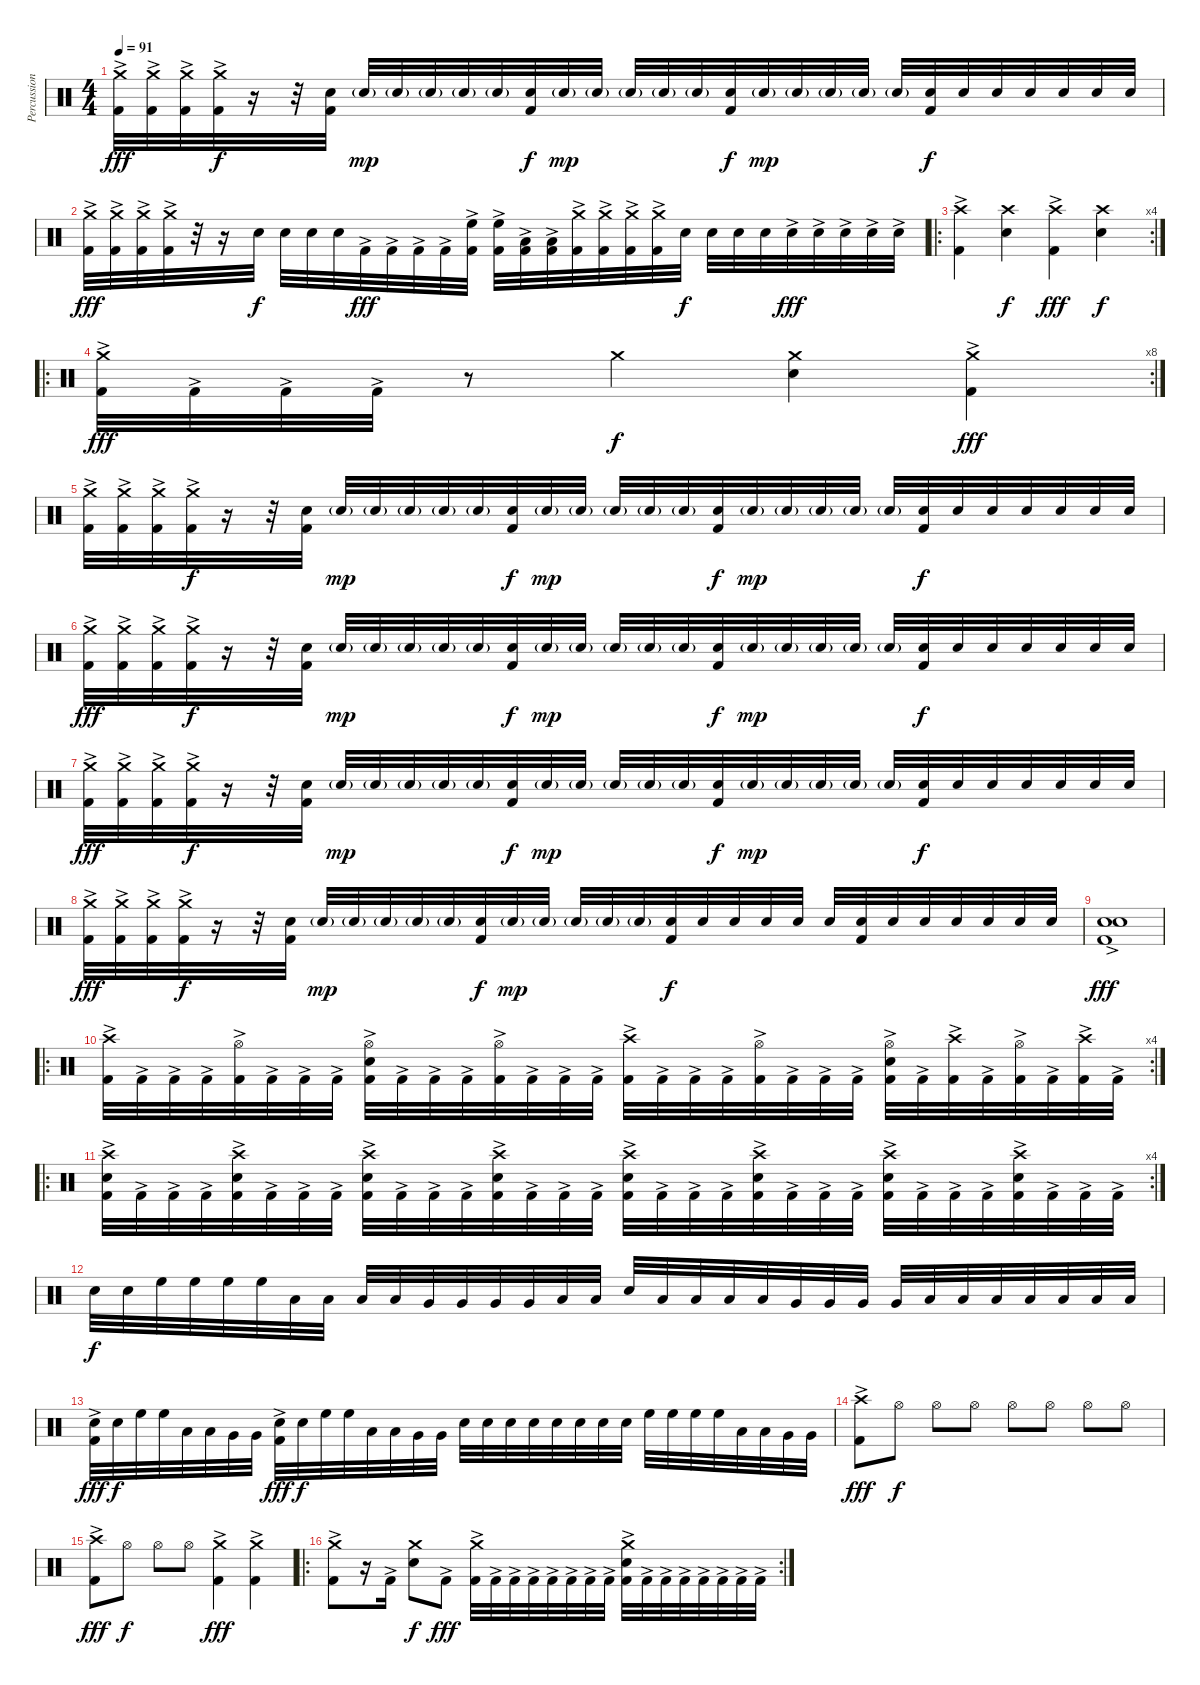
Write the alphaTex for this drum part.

\track ("Percussion" "Percussion") {instrument percussion}
\staff {score}
\articulation defaults
\ts (4 4)
\tempo 91
\clef neutral
\ks c
("Crash medium (hit)" "Kick (hit) 2"{ac}).32{dy fff} ("Crash medium (hit)"{ac} "Kick (hit) 2").32 ("Crash medium (hit)"{ac} "Kick (hit) 2").32 ("Crash medium (hit)"{ac} "Kick (hit) 2").32{dy f} r.16 r.32 ("Electric Snare (hit)" "Kick (hit) 2").32 "Electric Snare (hit)"{g}.32{dy mp} "Electric Snare (hit)"{g}.32 "Electric Snare (hit)"{g}.32 "Electric Snare (hit)"{g}.32 "Electric Snare (hit)"{g}.32 ("Electric Snare (hit)" "Kick (hit) 2").32{dy f} "Electric Snare (hit)"{g}.32{dy mp} "Electric Snare (hit)"{g}.32 "Electric Snare (hit)"{g}.32 "Electric Snare (hit)"{g}.32 "Electric Snare (hit)"{g}.32 ("Electric Snare (hit)" "Kick (hit) 2").32{dy f} "Electric Snare (hit)"{g}.32{dy mp} "Electric Snare (hit)"{g}.32 "Electric Snare (hit)"{g}.32 "Electric Snare (hit)"{g}.32 "Electric Snare (hit)"{g}.32 ("Electric Snare (hit)" "Kick (hit) 2").32{dy f} "Electric Snare (hit)".32 "Electric Snare (hit)".32 "Electric Snare (hit)".32 "Electric Snare (hit)".32 "Electric Snare (hit)".32 "Electric Snare (hit)".32 |
("Crash medium (hit)" "Kick (hit) 2"{ac}).32{dy fff} ("Crash medium (hit)" "Kick (hit) 2"{ac}).32 ("Crash medium (hit)" "Kick (hit) 2"{ac}).32 ("Crash medium (hit)" "Kick (hit) 2"{ac}).32 r.32 r.16 "Electric Snare (hit)".32{dy f} "Electric Snare (hit)".32 "Electric Snare (hit)".32 "Electric Snare (hit)".32 "Kick (hit) 2"{ac}.32{dy fff} "Kick (hit) 2"{ac}.32 "Kick (hit) 2"{ac}.32 "Kick (hit) 2"{ac}.32 ("High Floor Tom (hit)" "Kick (hit) 2"{ac}).32 ("High Floor Tom (hit)" "Kick (hit) 2"{ac}).32 ("Low Tom (hit)" "Kick (hit) 2"{ac}).32 ("Low Tom (hit)" "Kick (hit) 2"{ac}).32 ("Crash medium (hit)" "Kick (hit) 2"{ac}).32 ("Crash medium (hit)" "Kick (hit) 2"{ac}).32 ("Crash medium (hit)" "Kick (hit) 2"{ac}).32 ("Crash medium (hit)" "Kick (hit) 2"{ac}).32 "Electric Snare (hit)".32{dy f} "Electric Snare (hit)".32 "Electric Snare (hit)".32 "Electric Snare (hit)".32 "Electric Snare (hit)"{ac}.32{dy fff} "Electric Snare (hit)"{ac}.32 "Electric Snare (hit)"{ac}.32 "Electric Snare (hit)"{ac}.32 "Electric Snare (hit)"{ac}.32 |
\ro
\rc 4
("Crash high (hit)" "Kick (hit) 2"{ac}).4 ("Crash high (hit)" "Electric Snare (hit)").4{dy f} ("Crash high (hit)" "Kick (hit) 2"{ac}).4{dy fff} ("Crash high (hit)" "Electric Snare (hit)").4{dy f} |
\ro
\rc 8
("Crash medium (hit)" "Kick (hit) 2"{ac}).32{dy fff} "Kick (hit) 2"{ac}.32 "Kick (hit) 2"{ac}.32 "Kick (hit) 2"{ac}.32 r.8 "Crash medium (hit)".4{dy f} ("Crash medium (hit)" "Electric Snare (hit)").4 ("Crash medium (hit)" "Kick (hit) 2"{ac}).4{dy fff} |
("Crash medium (hit)" "Kick (hit) 2"{ac}).32 ("Crash medium (hit)"{ac} "Kick (hit) 2").32 ("Crash medium (hit)"{ac} "Kick (hit) 2").32 ("Crash medium (hit)"{ac} "Kick (hit) 2").32{dy f} r.16 r.32 ("Electric Snare (hit)" "Kick (hit) 2").32 "Electric Snare (hit)"{g}.32{dy mp} "Electric Snare (hit)"{g}.32 "Electric Snare (hit)"{g}.32 "Electric Snare (hit)"{g}.32 "Electric Snare (hit)"{g}.32 ("Electric Snare (hit)" "Kick (hit) 2").32{dy f} "Electric Snare (hit)"{g}.32{dy mp} "Electric Snare (hit)"{g}.32 "Electric Snare (hit)"{g}.32 "Electric Snare (hit)"{g}.32 "Electric Snare (hit)"{g}.32 ("Electric Snare (hit)" "Kick (hit) 2").32{dy f} "Electric Snare (hit)"{g}.32{dy mp} "Electric Snare (hit)"{g}.32 "Electric Snare (hit)"{g}.32 "Electric Snare (hit)"{g}.32 "Electric Snare (hit)"{g}.32 ("Electric Snare (hit)" "Kick (hit) 2").32{dy f} "Electric Snare (hit)".32 "Electric Snare (hit)".32 "Electric Snare (hit)".32 "Electric Snare (hit)".32 "Electric Snare (hit)".32 "Electric Snare (hit)".32 |
("Crash medium (hit)" "Kick (hit) 2"{ac}).32{dy fff} ("Crash medium (hit)"{ac} "Kick (hit) 2").32 ("Crash medium (hit)"{ac} "Kick (hit) 2").32 ("Crash medium (hit)"{ac} "Kick (hit) 2").32{dy f} r.16 r.32 ("Electric Snare (hit)" "Kick (hit) 2").32 "Electric Snare (hit)"{g}.32{dy mp} "Electric Snare (hit)"{g}.32 "Electric Snare (hit)"{g}.32 "Electric Snare (hit)"{g}.32 "Electric Snare (hit)"{g}.32 ("Electric Snare (hit)" "Kick (hit) 2").32{dy f} "Electric Snare (hit)"{g}.32{dy mp} "Electric Snare (hit)"{g}.32 "Electric Snare (hit)"{g}.32 "Electric Snare (hit)"{g}.32 "Electric Snare (hit)"{g}.32 ("Electric Snare (hit)" "Kick (hit) 2").32{dy f} "Electric Snare (hit)"{g}.32{dy mp} "Electric Snare (hit)"{g}.32 "Electric Snare (hit)"{g}.32 "Electric Snare (hit)"{g}.32 "Electric Snare (hit)"{g}.32 ("Electric Snare (hit)" "Kick (hit) 2").32{dy f} "Electric Snare (hit)".32 "Electric Snare (hit)".32 "Electric Snare (hit)".32 "Electric Snare (hit)".32 "Electric Snare (hit)".32 "Electric Snare (hit)".32 |
("Crash medium (hit)" "Kick (hit) 2"{ac}).32{dy fff} ("Crash medium (hit)"{ac} "Kick (hit) 2").32 ("Crash medium (hit)"{ac} "Kick (hit) 2").32 ("Crash medium (hit)"{ac} "Kick (hit) 2").32{dy f} r.16 r.32 ("Electric Snare (hit)" "Kick (hit) 2").32 "Electric Snare (hit)"{g}.32{dy mp} "Electric Snare (hit)"{g}.32 "Electric Snare (hit)"{g}.32 "Electric Snare (hit)"{g}.32 "Electric Snare (hit)"{g}.32 ("Electric Snare (hit)" "Kick (hit) 2").32{dy f} "Electric Snare (hit)"{g}.32{dy mp} "Electric Snare (hit)"{g}.32 "Electric Snare (hit)"{g}.32 "Electric Snare (hit)"{g}.32 "Electric Snare (hit)"{g}.32 ("Electric Snare (hit)" "Kick (hit) 2").32{dy f} "Electric Snare (hit)"{g}.32{dy mp} "Electric Snare (hit)"{g}.32 "Electric Snare (hit)"{g}.32 "Electric Snare (hit)"{g}.32 "Electric Snare (hit)"{g}.32 ("Electric Snare (hit)" "Kick (hit) 2").32{dy f} "Electric Snare (hit)".32 "Electric Snare (hit)".32 "Electric Snare (hit)".32 "Electric Snare (hit)".32 "Electric Snare (hit)".32 "Electric Snare (hit)".32 |
("Crash medium (hit)" "Kick (hit) 2"{ac}).32{dy fff} ("Crash medium (hit)"{ac} "Kick (hit) 2").32 ("Crash medium (hit)"{ac} "Kick (hit) 2").32 ("Crash medium (hit)"{ac} "Kick (hit) 2").32{dy f} r.16 r.32 ("Electric Snare (hit)" "Kick (hit) 2").32 "Electric Snare (hit)"{g}.32{dy mp} "Electric Snare (hit)"{g}.32 "Electric Snare (hit)"{g}.32 "Electric Snare (hit)"{g}.32 "Electric Snare (hit)"{g}.32 ("Electric Snare (hit)" "Kick (hit) 2").32{dy f} "Electric Snare (hit)"{g}.32{dy mp} "Electric Snare (hit)"{g}.32 "Electric Snare (hit)"{g}.32 "Electric Snare (hit)"{g}.32 "Electric Snare (hit)"{g}.32 ("Electric Snare (hit)" "Kick (hit) 2").32{dy f} "Electric Snare (hit)".32 "Electric Snare (hit)".32 "Electric Snare (hit)".32 "Electric Snare (hit)".32 "Electric Snare (hit)".32 ("Electric Snare (hit)" "Kick (hit) 2").32 "Electric Snare (hit)".32 "Electric Snare (hit)".32 "Electric Snare (hit)".32 "Electric Snare (hit)".32 "Electric Snare (hit)".32 "Electric Snare (hit)".32 |
("Electric Snare (hit)" "Electric Snare (hit)" "Kick (hit) 2"{ac}).1{dy fff} |
\ro
\rc 4
("Crash high (hit)" "Kick (hit) 2"{ac}).32 "Kick (hit) 2"{ac}.32 "Kick (hit) 2"{ac}.32 "Kick (hit) 2"{ac}.32 ("Hi-Hat (open)" "Kick (hit) 2"{ac}).32 "Kick (hit) 2"{ac}.32 "Kick (hit) 2"{ac}.32 "Kick (hit) 2"{ac}.32 ("Hi-Hat (open)" "Electric Snare (hit)" "Kick (hit) 2"{ac}).32 "Kick (hit) 2"{ac}.32 "Kick (hit) 2"{ac}.32 "Kick (hit) 2"{ac}.32 ("Hi-Hat (open)" "Kick (hit) 2"{ac}).32 "Kick (hit) 2"{ac}.32 "Kick (hit) 2"{ac}.32 "Kick (hit) 2"{ac}.32 ("Crash high (hit)" "Kick (hit) 2"{ac}).32 "Kick (hit) 2"{ac}.32 "Kick (hit) 2"{ac}.32 "Kick (hit) 2"{ac}.32 ("Hi-Hat (open)" "Kick (hit) 2"{ac}).32 "Kick (hit) 2"{ac}.32 "Kick (hit) 2"{ac}.32 "Kick (hit) 2"{ac}.32 ("Hi-Hat (open)" "Electric Snare (hit)" "Kick (hit) 2"{ac}).32 "Kick (hit) 2"{ac}.32 ("Crash high (hit)" "Kick (hit) 2"{ac}).32 "Kick (hit) 2"{ac}.32 ("Hi-Hat (open)" "Kick (hit) 2"{ac}).32 "Kick (hit) 2"{ac}.32 ("Crash high (hit)" "Kick (hit) 2"{ac}).32 "Kick (hit) 2"{ac}.32 |
\ro
\rc 4
("Crash high (hit)" "Electric Snare (hit)" "Kick (hit) 2"{ac}).32 "Kick (hit) 2"{ac}.32 "Kick (hit) 2"{ac}.32 "Kick (hit) 2"{ac}.32 ("Crash high (hit)" "Electric Snare (hit)" "Kick (hit) 2"{ac}).32 "Kick (hit) 2"{ac}.32 "Kick (hit) 2"{ac}.32 "Kick (hit) 2"{ac}.32 ("Crash high (hit)" "Electric Snare (hit)" "Kick (hit) 2"{ac}).32 "Kick (hit) 2"{ac}.32 "Kick (hit) 2"{ac}.32 "Kick (hit) 2"{ac}.32 ("Crash high (hit)" "Electric Snare (hit)" "Kick (hit) 2"{ac}).32 "Kick (hit) 2"{ac}.32 "Kick (hit) 2"{ac}.32 "Kick (hit) 2"{ac}.32 ("Crash high (hit)" "Electric Snare (hit)" "Kick (hit) 2"{ac}).32 "Kick (hit) 2"{ac}.32 "Kick (hit) 2"{ac}.32 "Kick (hit) 2"{ac}.32 ("Crash high (hit)" "Electric Snare (hit)" "Kick (hit) 2"{ac}).32 "Kick (hit) 2"{ac}.32 "Kick (hit) 2"{ac}.32 "Kick (hit) 2"{ac}.32 ("Crash high (hit)" "Electric Snare (hit)" "Kick (hit) 2"{ac}).32 "Kick (hit) 2"{ac}.32 "Kick (hit) 2"{ac}.32 "Kick (hit) 2"{ac}.32 ("Crash high (hit)" "Electric Snare (hit)" "Kick (hit) 2"{ac}).32 "Kick (hit) 2"{ac}.32 "Kick (hit) 2"{ac}.32 "Kick (hit) 2"{ac}.32 |
"Electric Snare (hit)".32{dy f} "Electric Snare (hit)".32 "High Floor Tom (hit)".32 "High Floor Tom (hit)".32 "High Floor Tom (hit)".32 "High Floor Tom (hit)".32 "Low Tom (hit)".32 "Low Tom (hit)".32 "Low Tom (hit)".32 "Low Tom (hit)".32 "Very Low Tom (hit)".32 "Very Low Tom (hit)".32 "Very Low Tom (hit)".32 "Very Low Tom (hit)".32 "Low Floor Tom (hit)".32 "Low Floor Tom (hit)".32 "Electric Snare (hit)".32 "Low Tom (hit)".32 "Low Tom (hit)".32 "Low Tom (hit)".32 "Low Tom (hit)".32 "Very Low Tom (hit)".32 "Very Low Tom (hit)".32 "Very Low Tom (hit)".32 "Very Low Tom (hit)".32 "Low Floor Tom (hit)".32 "Low Floor Tom (hit)".32 "Low Floor Tom (hit)".32 "Low Floor Tom (hit)".32 "Low Floor Tom (hit)".32 "Low Floor Tom (hit)".32 "Low Floor Tom (hit)".32 |
("Electric Snare (hit)" "Kick (hit) 2"{ac}).32{dy fff} "Electric Snare (hit)".32{dy f} "High Floor Tom (hit)".32 "High Floor Tom (hit)".32 "Low Tom (hit)".32 "Low Tom (hit)".32 "Very Low Tom (hit)".32 "Very Low Tom (hit)".32 ("Electric Snare (hit)" "Kick (hit) 2"{ac}).32{dy fff} "Electric Snare (hit)".32{dy f} "High Floor Tom (hit)".32 "High Floor Tom (hit)".32 "Low Tom (hit)".32 "Low Tom (hit)".32 "Very Low Tom (hit)".32 "Very Low Tom (hit)".32 "Electric Snare (hit)".32 "Electric Snare (hit)".32 "Electric Snare (hit)".32 "Electric Snare (hit)".32 "Electric Snare (hit)".32 "Electric Snare (hit)".32 "Electric Snare (hit)".32 "Electric Snare (hit)".32 "High Floor Tom (hit)".32 "High Floor Tom (hit)".32 "High Floor Tom (hit)".32 "High Floor Tom (hit)".32 "Low Tom (hit)".32 "Low Tom (hit)".32 "Very Low Tom (hit)".32 "Very Low Tom (hit)".32 |
("Crash high (hit)" "Kick (hit) 2"{ac}).8{dy fff} "Hi-Hat (open)".8{dy f} "Hi-Hat (open)".8 "Hi-Hat (open)".8 "Hi-Hat (open)".8 "Hi-Hat (open)".8 "Hi-Hat (open)".8 "Hi-Hat (open)".8 |
("Crash high (hit)" "Kick (hit) 2"{ac}).8{dy fff} "Hi-Hat (open)".8{dy f} "Hi-Hat (open)".8 "Hi-Hat (open)".8 ("Crash medium (hit)" "Kick (hit) 2"{ac}).4{dy fff} ("Crash medium (hit)" "Kick (hit) 2"{ac}).4 |
\ro
\rc 2
("Crash medium (hit)" "Kick (hit) 2"{ac}).8 r.16 "Kick (hit) 2"{ac}.16 ("Crash medium (hit)" "Electric Snare (hit)").8{dy f} "Kick (hit) 2"{ac}.8{dy fff} ("Crash medium (hit)" "Kick (hit) 2"{ac}).32 "Kick (hit) 2"{ac}.32 "Kick (hit) 2"{ac}.32 "Kick (hit) 2"{ac}.32 "Kick (hit) 2"{ac}.32 "Kick (hit) 2"{ac}.32 "Kick (hit) 2"{ac}.32 "Kick (hit) 2"{ac}.32 ("Crash medium (hit)" "Electric Snare (hit)" "Kick (hit) 2"{ac}).32 "Kick (hit) 2"{ac}.32 "Kick (hit) 2"{ac}.32 "Kick (hit) 2"{ac}.32 "Kick (hit) 2"{ac}.32 "Kick (hit) 2"{ac}.32 "Kick (hit) 2"{ac}.32 "Kick (hit) 2"{ac}.32
